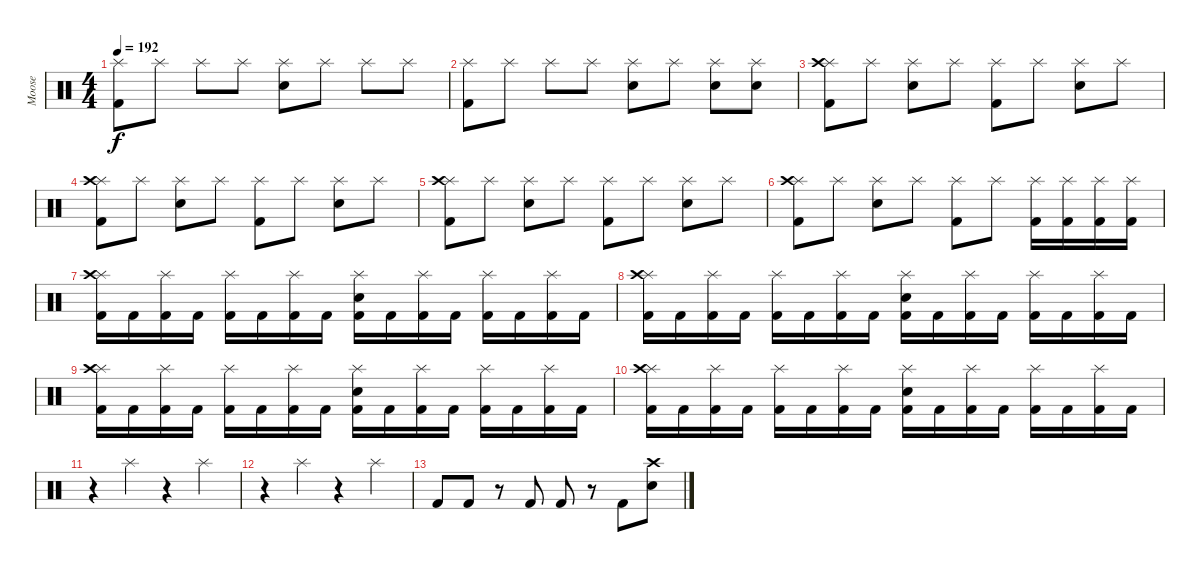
\track ("Moose" "Moose") {instrument percussion}
\staff {score}
\articulation defaults
\ts (4 4)
\tempo 192
\clef neutral
\ks c
("Splash (hit)" "Kick (hit) 2").8{dy f} "Splash (hit)".8 "Splash (hit)".8 "Splash (hit)".8 ("Splash (hit)" "Electric Snare (hit)").8 "Splash (hit)".8 "Splash (hit)".8 "Splash (hit)".8 |
("Splash (hit)" "Kick (hit) 2").8 "Splash (hit)".8 "Splash (hit)".8 "Splash (hit)".8 ("Splash (hit)" "Electric Snare (hit)").8 "Splash (hit)".8 ("Splash (hit)" "Electric Snare (hit)").8 ("Splash (hit)" "Electric Snare (hit)").8 |
("Splash (hit)" "Crash high (hit)" "Kick (hit) 2").8 "Splash (hit)".8 ("Splash (hit)" "Electric Snare (hit)").8 "Splash (hit)".8 ("Splash (hit)" "Kick (hit) 2").8 "Splash (hit)".8 ("Splash (hit)" "Electric Snare (hit)").8 "Splash (hit)".8 |
("Splash (hit)" "Crash high (hit)" "Kick (hit) 2").8 "Splash (hit)".8 ("Splash (hit)" "Electric Snare (hit)").8 "Splash (hit)".8 ("Splash (hit)" "Kick (hit) 2").8 "Splash (hit)".8 ("Splash (hit)" "Electric Snare (hit)").8 "Splash (hit)".8 |
("Splash (hit)" "Crash high (hit)" "Kick (hit) 2").8 "Splash (hit)".8 ("Splash (hit)" "Electric Snare (hit)").8 "Splash (hit)".8 ("Splash (hit)" "Kick (hit) 2").8 "Splash (hit)".8 ("Splash (hit)" "Electric Snare (hit)").8 "Splash (hit)".8 |
("Splash (hit)" "Crash high (hit)" "Kick (hit) 2").8 "Splash (hit)".8 ("Splash (hit)" "Electric Snare (hit)").8 "Splash (hit)".8 ("Splash (hit)" "Kick (hit) 2").8 "Splash (hit)".8 ("Splash (hit)" "Kick (hit) 2").16 ("Splash (hit)" "Kick (hit) 2").16 ("Splash (hit)" "Kick (hit) 2").16 ("Splash (hit)" "Kick (hit) 2").16 |
("Splash (hit)" "Crash high (hit)" "Kick (hit) 2").16 "Kick (hit) 2".16 ("Splash (hit)" "Kick (hit) 2").16 "Kick (hit) 2".16 ("Splash (hit)" "Kick (hit) 2").16 "Kick (hit) 2".16 ("Splash (hit)" "Kick (hit) 2").16 "Kick (hit) 2".16 ("Splash (hit)" "Electric Snare (hit)" "Kick (hit) 2").16 "Kick (hit) 2".16 ("Splash (hit)" "Kick (hit) 2").16 "Kick (hit) 2".16 ("Splash (hit)" "Kick (hit) 2").16 "Kick (hit) 2".16 ("Splash (hit)" "Kick (hit) 2").16 "Kick (hit) 2".16 |
("Splash (hit)" "Crash high (hit)" "Kick (hit) 2").16 "Kick (hit) 2".16 ("Splash (hit)" "Kick (hit) 2").16 "Kick (hit) 2".16 ("Splash (hit)" "Kick (hit) 2").16 "Kick (hit) 2".16 ("Splash (hit)" "Kick (hit) 2").16 "Kick (hit) 2".16 ("Splash (hit)" "Electric Snare (hit)" "Kick (hit) 2").16 "Kick (hit) 2".16 ("Splash (hit)" "Kick (hit) 2").16 "Kick (hit) 2".16 ("Splash (hit)" "Kick (hit) 2").16 "Kick (hit) 2".16 ("Splash (hit)" "Kick (hit) 2").16 "Kick (hit) 2".16 |
("Splash (hit)" "Crash high (hit)" "Kick (hit) 2").16 "Kick (hit) 2".16 ("Splash (hit)" "Kick (hit) 2").16 "Kick (hit) 2".16 ("Splash (hit)" "Kick (hit) 2").16 "Kick (hit) 2".16 ("Splash (hit)" "Kick (hit) 2").16 "Kick (hit) 2".16 ("Splash (hit)" "Electric Snare (hit)" "Kick (hit) 2").16 "Kick (hit) 2".16 ("Splash (hit)" "Kick (hit) 2").16 "Kick (hit) 2".16 ("Splash (hit)" "Kick (hit) 2").16 "Kick (hit) 2".16 ("Splash (hit)" "Kick (hit) 2").16 "Kick (hit) 2".16 |
("Splash (hit)" "Crash high (hit)" "Kick (hit) 2").16 "Kick (hit) 2".16 ("Splash (hit)" "Kick (hit) 2").16 "Kick (hit) 2".16 ("Splash (hit)" "Kick (hit) 2").16 "Kick (hit) 2".16 ("Splash (hit)" "Kick (hit) 2").16 "Kick (hit) 2".16 ("Splash (hit)" "Electric Snare (hit)" "Kick (hit) 2").16 "Kick (hit) 2".16 ("Splash (hit)" "Kick (hit) 2").16 "Kick (hit) 2".16 ("Splash (hit)" "Kick (hit) 2").16 "Kick (hit) 2".16 ("Splash (hit)" "Kick (hit) 2").16 "Kick (hit) 2".16 |
r.4 "Splash (hit)".4 r.4 "Splash (hit)".4 |
r.4 "Splash (hit)".4 r.4 "Splash (hit)".4 |
"Kick (hit) 2".8 "Kick (hit) 2".8 r.8 "Kick (hit) 2".8 "Kick (hit) 2".8 r.8 "Kick (hit) 2".8 ("Electric Snare (hit)" "Crash high (hit)").8
